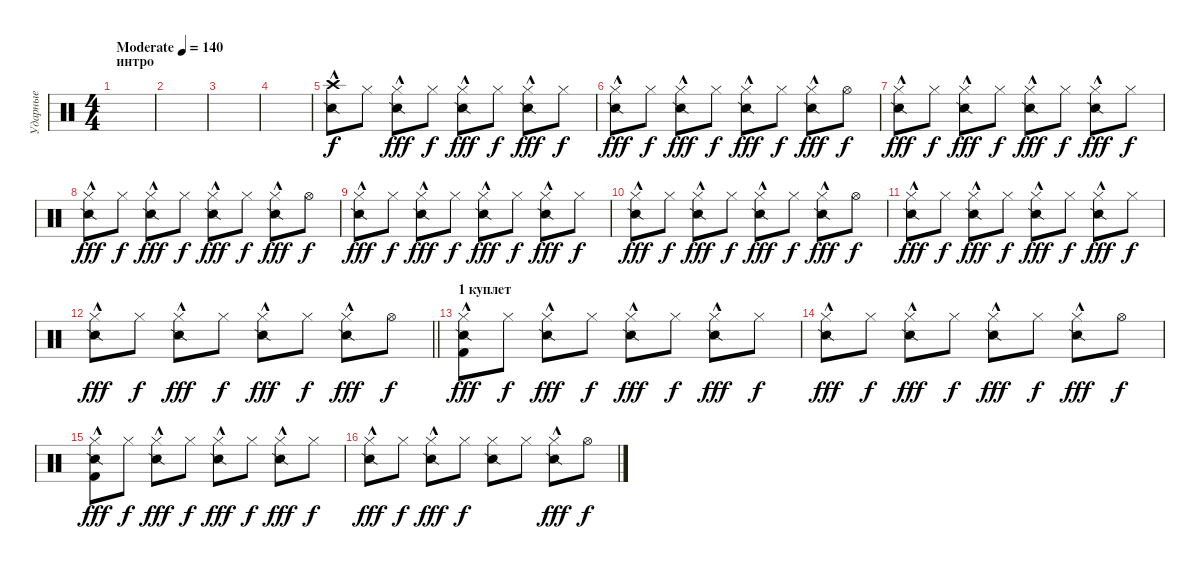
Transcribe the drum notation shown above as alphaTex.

\track ("Ударные" "Ударные") {instrument percussion}
\staff {score}
\articulation defaults
\ts (4 4)
\section ("" "интро")
\tempo (140 "Moderate")
\clef neutral
\ks c
|
|
|
|
("Crash high (hit)"{hac} "Snare (side stick) 2").8 "Hi-Hat (closed)".8{dy f} ("Hi-Hat (closed)"{hac} "Snare (side stick) 2").8{dy fff} "Hi-Hat (closed)".8{dy f} ("Hi-Hat (closed)"{hac} "Snare (side stick) 2").8{dy fff} "Hi-Hat (closed)".8{dy f} ("Hi-Hat (closed)"{hac} "Snare (side stick) 2").8{dy fff} "Hi-Hat (closed)".8{dy f} |
("Hi-Hat (closed)"{hac} "Snare (side stick) 2").8{dy fff} "Hi-Hat (closed)".8{dy f} ("Hi-Hat (closed)"{hac} "Snare (side stick) 2").8{dy fff} "Hi-Hat (closed)".8{dy f} ("Hi-Hat (closed)"{hac} "Snare (side stick) 2").8{dy fff} "Hi-Hat (closed)".8{dy f} ("Hi-Hat (closed)"{hac} "Snare (side stick) 2").8{dy fff} "Hi-Hat (open)".8{dy f} |
("Hi-Hat (closed)"{hac} "Snare (side stick) 2").8{dy fff} "Hi-Hat (closed)".8{dy f} ("Hi-Hat (closed)"{hac} "Snare (side stick) 2").8{dy fff} "Hi-Hat (closed)".8{dy f} ("Hi-Hat (closed)"{hac} "Snare (side stick) 2").8{dy fff} "Hi-Hat (closed)".8{dy f} ("Hi-Hat (closed)"{hac} "Snare (side stick) 2").8{dy fff} "Hi-Hat (closed)".8{dy f} |
("Hi-Hat (closed)"{hac} "Snare (side stick) 2").8{dy fff} "Hi-Hat (closed)".8{dy f} ("Hi-Hat (closed)"{hac} "Snare (side stick) 2").8{dy fff} "Hi-Hat (closed)".8{dy f} ("Hi-Hat (closed)"{hac} "Snare (side stick) 2").8{dy fff} "Hi-Hat (closed)".8{dy f} ("Hi-Hat (closed)"{hac} "Snare (side stick) 2").8{dy fff} "Hi-Hat (open)".8{dy f} |
("Hi-Hat (closed)"{hac} "Snare (side stick) 2").8{dy fff} "Hi-Hat (closed)".8{dy f} ("Hi-Hat (closed)"{hac} "Snare (side stick) 2").8{dy fff} "Hi-Hat (closed)".8{dy f} ("Hi-Hat (closed)"{hac} "Snare (side stick) 2").8{dy fff} "Hi-Hat (closed)".8{dy f} ("Hi-Hat (closed)"{hac} "Snare (side stick) 2").8{dy fff} "Hi-Hat (closed)".8{dy f} |
("Hi-Hat (closed)"{hac} "Snare (side stick) 2").8{dy fff} "Hi-Hat (closed)".8{dy f} ("Hi-Hat (closed)"{hac} "Snare (side stick) 2").8{dy fff} "Hi-Hat (closed)".8{dy f} ("Hi-Hat (closed)"{hac} "Snare (side stick) 2").8{dy fff} "Hi-Hat (closed)".8{dy f} ("Hi-Hat (closed)"{hac} "Snare (side stick) 2").8{dy fff} "Hi-Hat (open)".8{dy f} |
("Hi-Hat (closed)"{hac} "Snare (side stick) 2").8{dy fff} "Hi-Hat (closed)".8{dy f} ("Hi-Hat (closed)"{hac} "Snare (side stick) 2").8{dy fff} "Hi-Hat (closed)".8{dy f} ("Hi-Hat (closed)"{hac} "Snare (side stick) 2").8{dy fff} "Hi-Hat (closed)".8{dy f} ("Hi-Hat (closed)"{hac} "Snare (side stick) 2").8{dy fff} "Hi-Hat (closed)".8{dy f} |
\barLineRight lightlight
("Hi-Hat (closed)"{hac} "Snare (side stick) 2").8{dy fff} "Hi-Hat (closed)".8{dy f} ("Hi-Hat (closed)"{hac} "Snare (side stick) 2").8{dy fff} "Hi-Hat (closed)".8{dy f} ("Hi-Hat (closed)"{hac} "Snare (side stick) 2").8{dy fff} "Hi-Hat (closed)".8{dy f} ("Hi-Hat (closed)"{hac} "Snare (side stick) 2").8{dy fff} "Hi-Hat (open)".8{dy f} |
\section ("" "1 куплет")
("Hi-Hat (closed)"{hac} "Snare (side stick) 2" "Kick (hit) 2").8{dy fff} "Hi-Hat (closed)".8{dy f} ("Hi-Hat (closed)"{hac} "Snare (side stick) 2").8{dy fff} "Hi-Hat (closed)".8{dy f} ("Hi-Hat (closed)"{hac} "Snare (side stick) 2").8{dy fff} "Hi-Hat (closed)".8{dy f} ("Hi-Hat (closed)"{hac} "Snare (side stick) 2").8{dy fff} "Hi-Hat (closed)".8{dy f} |
("Hi-Hat (closed)"{hac} "Snare (side stick) 2").8{dy fff} "Hi-Hat (closed)".8{dy f} ("Hi-Hat (closed)"{hac} "Snare (side stick) 2").8{dy fff} "Hi-Hat (closed)".8{dy f} ("Hi-Hat (closed)"{hac} "Snare (side stick) 2").8{dy fff} "Hi-Hat (closed)".8{dy f} ("Hi-Hat (closed)"{hac} "Snare (side stick) 2").8{dy fff} "Hi-Hat (open)".8{dy f} |
("Hi-Hat (closed)"{hac} "Snare (side stick) 2" "Kick (hit) 2").8{dy fff} "Hi-Hat (closed)".8{dy f} ("Hi-Hat (closed)"{hac} "Snare (side stick) 2").8{dy fff} "Hi-Hat (closed)".8{dy f} ("Hi-Hat (closed)"{hac} "Snare (side stick) 2").8{dy fff} "Hi-Hat (closed)".8{dy f} ("Hi-Hat (closed)"{hac} "Snare (side stick) 2").8{dy fff} "Hi-Hat (closed)".8{dy f} |
("Hi-Hat (closed)"{hac} "Snare (side stick) 2").8{dy fff} "Hi-Hat (closed)".8{dy f} ("Hi-Hat (closed)"{hac} "Snare (side stick) 2").8{dy fff} "Hi-Hat (closed)".8{dy f} ("Hi-Hat (closed)" "Snare (side stick) 2").8 "Hi-Hat (closed)".8 ("Hi-Hat (closed)"{hac} "Snare (side stick) 2").8{dy fff} "Hi-Hat (open)".8{dy f}
